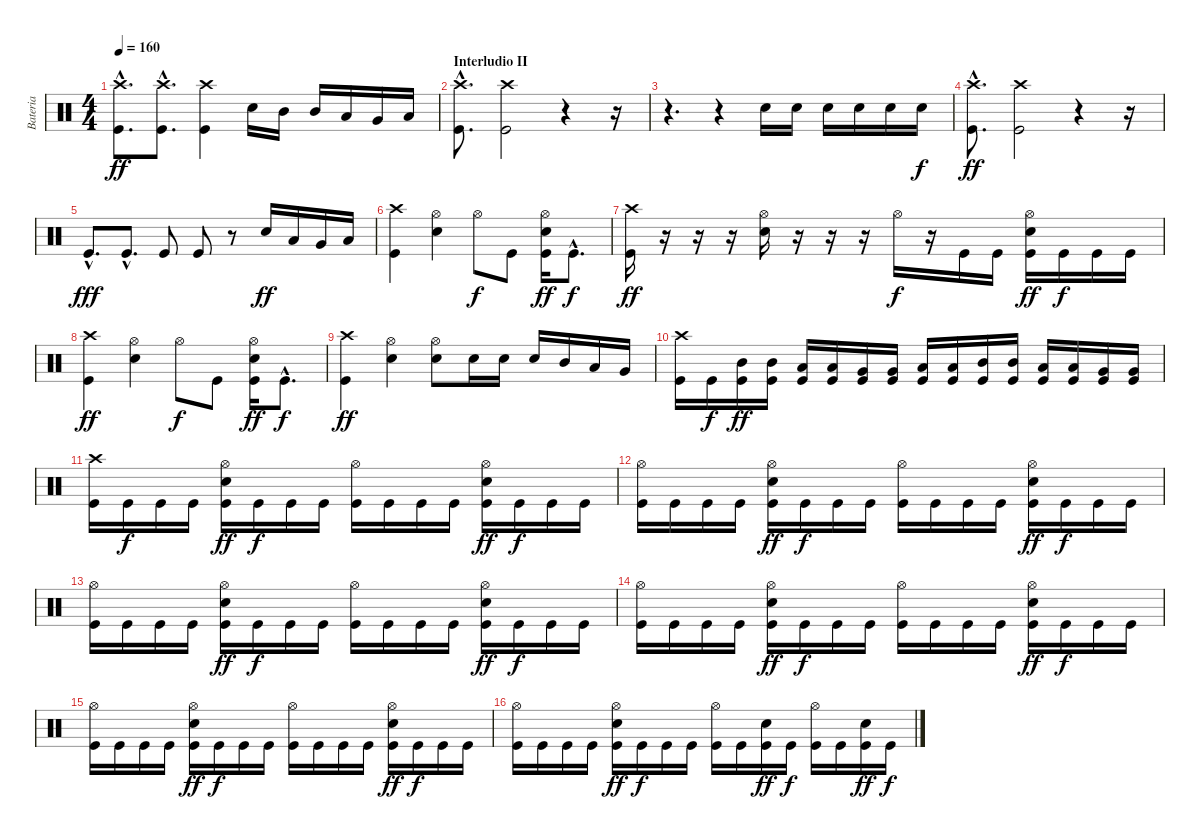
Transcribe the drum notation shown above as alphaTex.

\track ("Bateria" "Bateria") {instrument percussion}
\staff {score}
\articulation defaults
\ts (4 4)
\tempo 160
\clef neutral
\ks c
("Kick (hit)"{hac} "Crash high (hit)"{hac}).8{d dy ff} ("Kick (hit)"{hac} "Crash high (hit)"{hac}).8{d} ("Kick (hit)" "Crash high (hit)").4 "Electric Snare (hit)".16 "Mid Tom (hit)".16 "Mid Tom (hit)".16 "Low Tom (hit)".16 "Very Low Tom (hit)".16 "Low Floor Tom (hit)".16 |
\section ("" "Interludio II")
("Kick (hit)"{hac} "Crash high (hit)"{hac}).8{d} ("Kick (hit)" "Crash high (hit)").2 r.4 r.16 |
r.4{d} r.4 "Electric Snare (hit)".16 "Electric Snare (hit)".16 "Electric Snare (hit)".16 "Electric Snare (hit)".16 "Electric Snare (hit)".16 "Electric Snare (hit)".16{dy f} |
("Kick (hit)"{hac} "Crash high (hit)"{hac}).8{d dy ff} ("Kick (hit)" "Crash high (hit)").2 r.4 r.16 |
"Kick (hit)"{hac}.8{d dy fff} "Kick (hit)"{hac}.8{d} "Kick (hit)".8 "Kick (hit)".8 r.8 "Electric Snare (hit)".16{dy ff} "Low Tom (hit)".16 "Very Low Tom (hit)".16 "Low Floor Tom (hit)".16 |
("Kick (hit)" "Crash high (hit)").4 ("Electric Snare (hit)" "Hi-Hat (open)").4 "Hi-Hat (open)".8{dy f} "Kick (hit)".8 ("Kick (hit)" "Electric Snare (hit)" "Hi-Hat (open)").16{dy ff} "Kick (hit)"{hac}.8{d dy f} |
("Kick (hit)" "Crash high (hit)").16{dy ff} r.16 r.16 r.16 ("Electric Snare (hit)" "Hi-Hat (open)").16 r.16 r.16 r.16 "Hi-Hat (open)".16{dy f} r.16 "Kick (hit)".16 "Kick (hit)".16 ("Kick (hit)" "Electric Snare (hit)" "Hi-Hat (open)").16{dy ff} "Kick (hit)".16{dy f} "Kick (hit)".16 "Kick (hit)".16 |
("Kick (hit)" "Crash high (hit)").4{dy ff} ("Electric Snare (hit)" "Hi-Hat (open)").4 "Hi-Hat (open)".8{dy f} "Kick (hit)".8 ("Kick (hit)" "Electric Snare (hit)" "Hi-Hat (open)").16{dy ff} "Kick (hit)"{hac}.8{d dy f} |
("Kick (hit)" "Crash high (hit)").4{dy ff} ("Electric Snare (hit)" "Hi-Hat (open)").4 ("Electric Snare (hit)" "Hi-Hat (open)").8 "Electric Snare (hit)".16 "Electric Snare (hit)".16 "Electric Snare (hit)".16 "Mid Tom (hit)".16 "Low Tom (hit)".16 "Very Low Tom (hit)".16 |
("Kick (hit)" "Crash high (hit)").16 "Kick (hit)".16{dy f} ("Kick (hit)" "Mid Tom (hit)").16{dy ff} ("Kick (hit)" "Mid Tom (hit)").16 ("Kick (hit)" "Low Tom (hit)").16 ("Kick (hit)" "Low Tom (hit)").16 ("Kick (hit)" "Very Low Tom (hit)").16 ("Kick (hit)" "Very Low Tom (hit)").16 ("Kick (hit)" "Low Floor Tom (hit)").16 ("Kick (hit)" "Low Floor Tom (hit)").16 ("Kick (hit)" "Mid Tom (hit)").16 ("Kick (hit)" "Mid Tom (hit)").16 ("Kick (hit)" "Low Tom (hit)").16 ("Kick (hit)" "Low Tom (hit)").16 ("Kick (hit)" "Very Low Tom (hit)").16 ("Kick (hit)" "Very Low Tom (hit)").16 |
("Kick (hit)" "Crash high (hit)").16 "Kick (hit)".16{dy f} "Kick (hit)".16 "Kick (hit)".16 ("Kick (hit)" "Electric Snare (hit)" "Hi-Hat (open)").16{dy ff} "Kick (hit)".16{dy f} "Kick (hit)".16 "Kick (hit)".16 ("Kick (hit)" "Hi-Hat (open)").16 "Kick (hit)".16 "Kick (hit)".16 "Kick (hit)".16 ("Kick (hit)" "Electric Snare (hit)" "Hi-Hat (open)").16{dy ff} "Kick (hit)".16{dy f} "Kick (hit)".16 "Kick (hit)".16 |
("Kick (hit)" "Hi-Hat (open)").16 "Kick (hit)".16 "Kick (hit)".16 "Kick (hit)".16 ("Kick (hit)" "Electric Snare (hit)" "Hi-Hat (open)").16{dy ff} "Kick (hit)".16{dy f} "Kick (hit)".16 "Kick (hit)".16 ("Kick (hit)" "Hi-Hat (open)").16 "Kick (hit)".16 "Kick (hit)".16 "Kick (hit)".16 ("Kick (hit)" "Electric Snare (hit)" "Hi-Hat (open)").16{dy ff} "Kick (hit)".16{dy f} "Kick (hit)".16 "Kick (hit)".16 |
("Kick (hit)" "Hi-Hat (open)").16 "Kick (hit)".16 "Kick (hit)".16 "Kick (hit)".16 ("Kick (hit)" "Electric Snare (hit)" "Hi-Hat (open)").16{dy ff} "Kick (hit)".16{dy f} "Kick (hit)".16 "Kick (hit)".16 ("Kick (hit)" "Hi-Hat (open)").16 "Kick (hit)".16 "Kick (hit)".16 "Kick (hit)".16 ("Kick (hit)" "Electric Snare (hit)" "Hi-Hat (open)").16{dy ff} "Kick (hit)".16{dy f} "Kick (hit)".16 "Kick (hit)".16 |
("Kick (hit)" "Hi-Hat (open)").16 "Kick (hit)".16 "Kick (hit)".16 "Kick (hit)".16 ("Kick (hit)" "Electric Snare (hit)" "Hi-Hat (open)").16{dy ff} "Kick (hit)".16{dy f} "Kick (hit)".16 "Kick (hit)".16 ("Kick (hit)" "Hi-Hat (open)").16 "Kick (hit)".16 "Kick (hit)".16 "Kick (hit)".16 ("Kick (hit)" "Electric Snare (hit)" "Hi-Hat (open)").16{dy ff} "Kick (hit)".16{dy f} "Kick (hit)".16 "Kick (hit)".16 |
("Kick (hit)" "Hi-Hat (open)").16 "Kick (hit)".16 "Kick (hit)".16 "Kick (hit)".16 ("Kick (hit)" "Electric Snare (hit)" "Hi-Hat (open)").16{dy ff} "Kick (hit)".16{dy f} "Kick (hit)".16 "Kick (hit)".16 ("Kick (hit)" "Hi-Hat (open)").16 "Kick (hit)".16 "Kick (hit)".16 "Kick (hit)".16 ("Kick (hit)" "Electric Snare (hit)" "Hi-Hat (open)").16{dy ff} "Kick (hit)".16{dy f} "Kick (hit)".16 "Kick (hit)".16 |
("Kick (hit)" "Hi-Hat (open)").16 "Kick (hit)".16 "Kick (hit)".16 "Kick (hit)".16 ("Kick (hit)" "Electric Snare (hit)" "Hi-Hat (open)").16{dy ff} "Kick (hit)".16{dy f} "Kick (hit)".16 "Kick (hit)".16 ("Kick (hit)" "Hi-Hat (open)").16 "Kick (hit)".16 ("Kick (hit)" "Electric Snare (hit)").16{dy ff} "Kick (hit)".16{dy f} ("Kick (hit)" "Hi-Hat (open)").16 "Kick (hit)".16 ("Kick (hit)" "Electric Snare (hit)").16{dy ff} "Kick (hit)".16{dy f}
